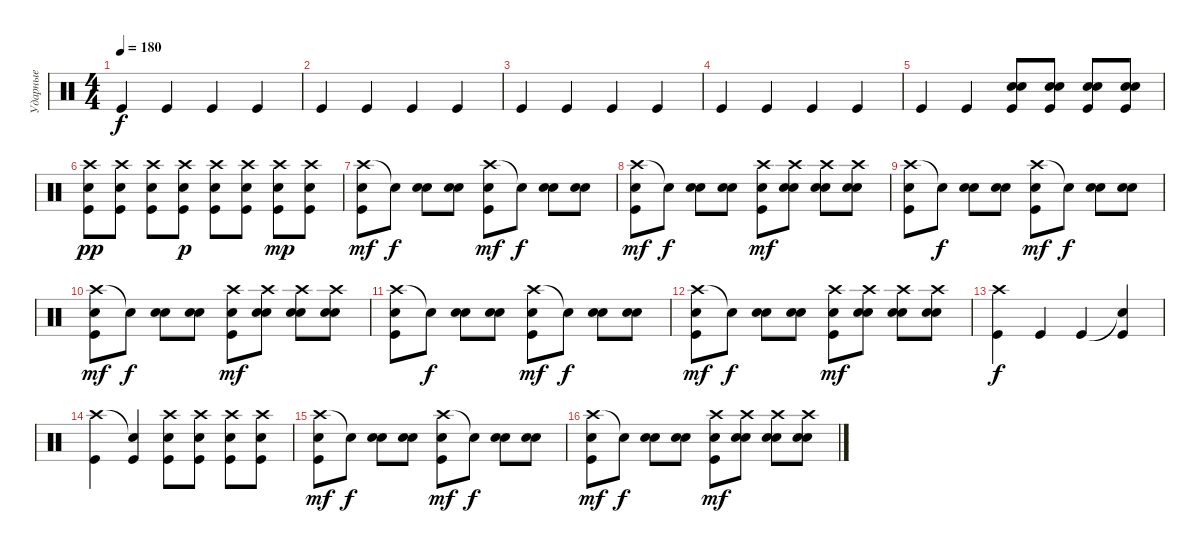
\track ("Ударные" "Ударные") {instrument percussion}
\staff {score}
\articulation defaults
\ts (4 4)
\tempo 180
\clef neutral
\ks c "Kick (hit)".4{dy f} "Kick (hit)".4 "Kick (hit)".4 "Kick (hit)".4
|
"Kick (hit)".4 "Kick (hit)".4 "Kick (hit)".4 "Kick (hit)".4 |
"Kick (hit)".4 "Kick (hit)".4 "Kick (hit)".4 "Kick (hit)".4 |
"Kick (hit)".4 "Kick (hit)".4 "Kick (hit)".4 "Kick (hit)".4 |
"Kick (hit)".4 "Kick (hit)".4 ("Electric Snare (hit)" "Electric Snare (hit)" "Kick (hit)").8 ("Electric Snare (hit)" "Electric Snare (hit)" "Kick (hit)").8 ("Electric Snare (hit)" "Electric Snare (hit)" "Kick (hit)").8 ("Electric Snare (hit)" "Electric Snare (hit)" "Kick (hit)").8 |
("Crash high (hit)" "Kick (hit)" "Electric Snare (hit)").8{dy pp} ("Crash high (hit)" "Kick (hit)" "Electric Snare (hit)").8 ("Crash high (hit)" "Kick (hit)" "Electric Snare (hit)").8 ("Crash high (hit)" "Kick (hit)" "Electric Snare (hit)").8{dy p} ("Crash high (hit)" "Kick (hit)" "Electric Snare (hit)").8 ("Crash high (hit)" "Kick (hit)" "Electric Snare (hit)").8 ("Crash high (hit)" "Kick (hit)" "Electric Snare (hit)").8{dy mp} ("Crash high (hit)" "Kick (hit)" "Electric Snare (hit)").8 |
("Crash high (hit)" "Kick (hit)" "Electric Snare (hit)").8{dy mf} "Snare (hit)"{t}.8{dy f} ("Electric Snare (hit)" "Electric Snare (hit)").8 ("Electric Snare (hit)" "Electric Snare (hit)").8 ("Crash high (hit)" "Kick (hit)" "Electric Snare (hit)").8{dy mf} "Snare (hit)"{t}.8{dy f} ("Electric Snare (hit)" "Electric Snare (hit)").8 ("Electric Snare (hit)" "Electric Snare (hit)").8 |
("Crash high (hit)" "Kick (hit)" "Electric Snare (hit)").8{dy mf} "Snare (hit)"{t}.8{dy f} ("Electric Snare (hit)" "Electric Snare (hit)").8 ("Electric Snare (hit)" "Electric Snare (hit)").8 ("Crash high (hit)" "Kick (hit)" "Electric Snare (hit)").8{dy mf} ("Crash high (hit)" "Electric Snare (hit)" "Electric Snare (hit)").8 ("Crash high (hit)" "Electric Snare (hit)" "Electric Snare (hit)").8 ("Crash high (hit)" "Electric Snare (hit)" "Electric Snare (hit)").8 |
("Crash high (hit)" "Kick (hit)" "Electric Snare (hit)").8 "Snare (hit)"{t}.8{dy f} ("Electric Snare (hit)" "Electric Snare (hit)").8 ("Electric Snare (hit)" "Electric Snare (hit)").8 ("Crash high (hit)" "Kick (hit)" "Electric Snare (hit)").8{dy mf} "Snare (hit)"{t}.8{dy f} ("Electric Snare (hit)" "Electric Snare (hit)").8 ("Electric Snare (hit)" "Electric Snare (hit)").8 |
("Crash high (hit)" "Kick (hit)" "Electric Snare (hit)").8{dy mf} "Snare (hit)"{t}.8{dy f} ("Electric Snare (hit)" "Electric Snare (hit)").8 ("Electric Snare (hit)" "Electric Snare (hit)").8 ("Crash high (hit)" "Kick (hit)" "Electric Snare (hit)").8{dy mf} ("Crash high (hit)" "Electric Snare (hit)" "Electric Snare (hit)").8 ("Crash high (hit)" "Electric Snare (hit)" "Electric Snare (hit)").8 ("Crash high (hit)" "Electric Snare (hit)" "Electric Snare (hit)").8 |
("Crash high (hit)" "Kick (hit)" "Electric Snare (hit)").8 "Snare (hit)"{t}.8{dy f} ("Electric Snare (hit)" "Electric Snare (hit)").8 ("Electric Snare (hit)" "Electric Snare (hit)").8 ("Crash high (hit)" "Kick (hit)" "Electric Snare (hit)").8{dy mf} "Snare (hit)"{t}.8{dy f} ("Electric Snare (hit)" "Electric Snare (hit)").8 ("Electric Snare (hit)" "Electric Snare (hit)").8 |
("Crash high (hit)" "Kick (hit)" "Electric Snare (hit)").8{dy mf} "Snare (hit)"{t}.8{dy f} ("Electric Snare (hit)" "Electric Snare (hit)").8 ("Electric Snare (hit)" "Electric Snare (hit)").8 ("Crash high (hit)" "Kick (hit)" "Electric Snare (hit)").8{dy mf} ("Crash high (hit)" "Electric Snare (hit)" "Electric Snare (hit)").8 ("Crash high (hit)" "Electric Snare (hit)" "Electric Snare (hit)").8 ("Crash high (hit)" "Electric Snare (hit)" "Electric Snare (hit)").8 |
("Crash high (hit)" "Kick (hit)").4{dy f} "Kick (hit)".4 "Kick (hit)".4 ("Snare (hit)"{t} "Kick (hit)").4 |
("Crash high (hit)" "Kick (hit)").4 ("Snare (hit)"{t} "Kick (hit)").4 ("Crash high (hit)" "Electric Snare (hit)" "Kick (hit)").8 ("Crash high (hit)" "Electric Snare (hit)" "Kick (hit)").8 ("Crash high (hit)" "Electric Snare (hit)" "Kick (hit)").8 ("Crash high (hit)" "Electric Snare (hit)" "Kick (hit)").8 |
("Crash high (hit)" "Kick (hit)" "Electric Snare (hit)").8{dy mf} "Snare (hit)"{t}.8{dy f} ("Electric Snare (hit)" "Electric Snare (hit)").8 ("Electric Snare (hit)" "Electric Snare (hit)").8 ("Crash high (hit)" "Kick (hit)" "Electric Snare (hit)").8{dy mf} "Snare (hit)"{t}.8{dy f} ("Electric Snare (hit)" "Electric Snare (hit)").8 ("Electric Snare (hit)" "Electric Snare (hit)").8 |
("Crash high (hit)" "Kick (hit)" "Electric Snare (hit)").8{dy mf} "Snare (hit)"{t}.8{dy f} ("Electric Snare (hit)" "Electric Snare (hit)").8 ("Electric Snare (hit)" "Electric Snare (hit)").8 ("Crash high (hit)" "Kick (hit)" "Electric Snare (hit)").8{dy mf} ("Crash high (hit)" "Electric Snare (hit)" "Electric Snare (hit)").8 ("Crash high (hit)" "Electric Snare (hit)" "Electric Snare (hit)").8 ("Crash high (hit)" "Electric Snare (hit)" "Electric Snare (hit)").8
